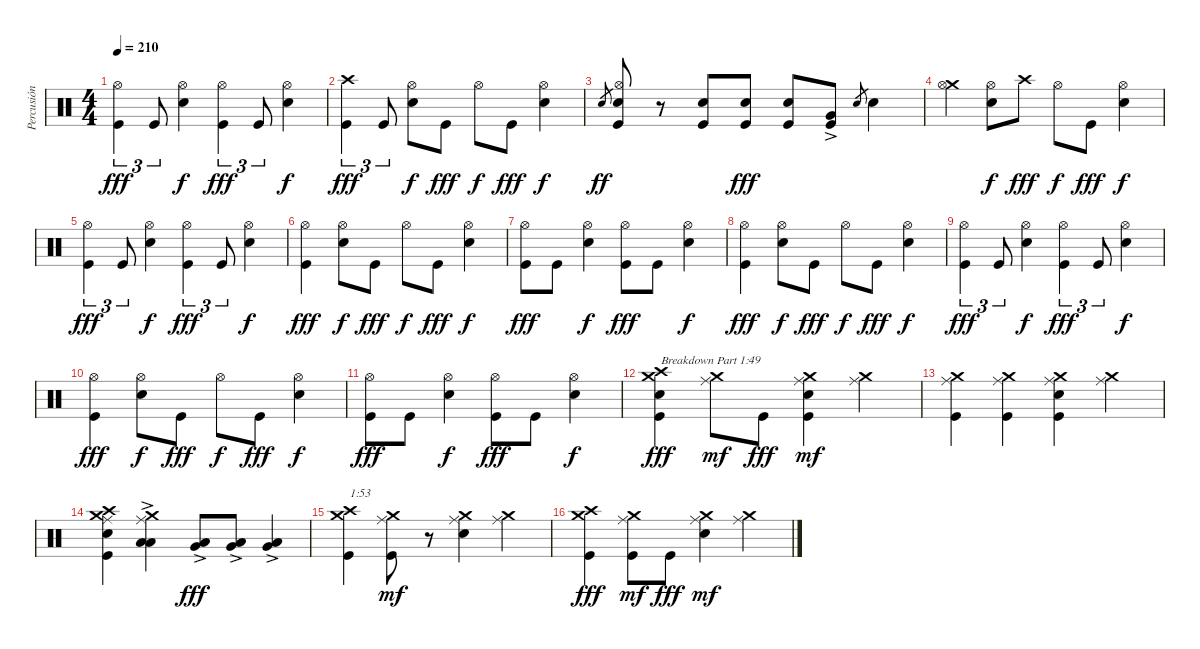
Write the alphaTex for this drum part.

\track ("Percusión" "Percusión") {instrument percussion}
\staff {score}
\articulation defaults
\ts (4 4)
\tempo 210
\clef neutral
\ks c
("Kick (hit)" "Hi-Hat (open)").4{tu (3 2) dy fff} "Kick (hit)".8{tu (3 2)} ("Electric Snare (hit)" "Hi-Hat (open)").4{dy f} ("Kick (hit)" "Hi-Hat (open)").4{tu (3 2) dy fff} "Kick (hit)".8{tu (3 2)} ("Electric Snare (hit)" "Hi-Hat (open)").4{dy f} |
("Kick (hit)" "Crash high (hit)").4{tu (3 2) dy fff} "Kick (hit)".8{tu (3 2)} ("Electric Snare (hit)" "Hi-Hat (open)").8{dy f} "Kick (hit)".8{dy fff} "Hi-Hat (open)".8{dy f} "Kick (hit)".8{dy fff} ("Electric Snare (hit)" "Hi-Hat (open)").4{dy f} |
"Electric Snare (hit)".8{gr dy ff} ("Kick (hit)" "Electric Snare (hit)" "Hi-Hat (open)").8 r.8 ("Kick (hit)" "Electric Snare (hit)").8 ("Kick (hit)" "Electric Snare (hit)").8{dy fff} ("Kick (hit)" "Electric Snare (hit)").8 ("Kick (hit)" "Very Low Tom (hit)"{ac}).8 "Electric Snare (hit)".8{gr} "Electric Snare (hit)".4 |
("Crash medium (hit)" "Hi-Hat (open)").4 ("Electric Snare (hit)" "Hi-Hat (open)").8{dy f} "Crash high (hit)".8{dy fff} "Hi-Hat (open)".8{dy f} "Kick (hit)".8{dy fff} ("Electric Snare (hit)" "Hi-Hat (open)").4{dy f} |
("Kick (hit)" "Hi-Hat (open)").4{tu (3 2) dy fff} "Kick (hit)".8{tu (3 2)} ("Electric Snare (hit)" "Hi-Hat (open)").4{dy f} ("Kick (hit)" "Hi-Hat (open)").4{tu (3 2) dy fff} "Kick (hit)".8{tu (3 2)} ("Electric Snare (hit)" "Hi-Hat (open)").4{dy f} |
("Kick (hit)" "Hi-Hat (open)").4{dy fff} ("Electric Snare (hit)" "Hi-Hat (open)").8{dy f} "Kick (hit)".8{dy fff} "Hi-Hat (open)".8{dy f} "Kick (hit)".8{dy fff} ("Electric Snare (hit)" "Hi-Hat (open)").4{dy f} |
("Kick (hit)" "Hi-Hat (open)").8{dy fff} "Kick (hit)".8 ("Electric Snare (hit)" "Hi-Hat (open)").4{dy f} ("Kick (hit)" "Hi-Hat (open)").8{dy fff} "Kick (hit)".8 ("Electric Snare (hit)" "Hi-Hat (open)").4{dy f} |
("Kick (hit)" "Hi-Hat (open)").4{dy fff} ("Electric Snare (hit)" "Hi-Hat (open)").8{dy f} "Kick (hit)".8{dy fff} "Hi-Hat (open)".8{dy f} "Kick (hit)".8{dy fff} ("Electric Snare (hit)" "Hi-Hat (open)").4{dy f} |
("Kick (hit)" "Hi-Hat (open)").4{tu (3 2) dy fff} "Kick (hit)".8{tu (3 2)} ("Electric Snare (hit)" "Hi-Hat (open)").4{dy f} ("Kick (hit)" "Hi-Hat (open)").4{tu (3 2) dy fff} "Kick (hit)".8{tu (3 2)} ("Electric Snare (hit)" "Hi-Hat (open)").4{dy f} |
("Kick (hit)" "Hi-Hat (open)").4{dy fff} ("Electric Snare (hit)" "Hi-Hat (open)").8{dy f} "Kick (hit)".8{dy fff} "Hi-Hat (open)".8{dy f} "Kick (hit)".8{dy fff} ("Electric Snare (hit)" "Hi-Hat (open)").4{dy f} |
("Kick (hit)" "Hi-Hat (open)").8{dy fff} "Kick (hit)".8 ("Electric Snare (hit)" "Hi-Hat (open)").4{dy f} ("Kick (hit)" "Hi-Hat (open)").8{dy fff} "Kick (hit)".8 ("Electric Snare (hit)" "Hi-Hat (open)").4{dy f} |
("Kick (hit)" "Electric Snare (hit)" "Crash medium (hit)" "Crash high (hit)").4{txt "Breakdown Part 1:49" dy fff} ("Ride (middle)" "Crash medium (hit)").8{dy mf} "Kick (hit)".8{dy fff} ("Kick (hit)" "Electric Snare (hit)" "Ride (middle)" "Crash medium (hit)").4{dy mf} ("Ride (middle)" "Crash medium (hit)").4 |
("Kick (hit)" "Ride (middle)" "Crash medium (hit)").4 ("Kick (hit)" "Ride (middle)" "Crash medium (hit)").4 ("Kick (hit)" "Electric Snare (hit)" "Ride (middle)" "Crash medium (hit)").4 ("Ride (middle)" "Crash medium (hit)").4 |
("Kick (hit)" "Electric Snare (hit)" "Ride (middle)" "Crash medium (hit)" "Crash high (hit)").4 ("Low Tom (hit)"{ac} "Low Floor Tom (hit)"{ac} "Ride (middle)" "Crash medium (hit)").4 ("Low Tom (hit)"{ac} "Very Low Tom (hit)"{ac}).8{dy fff} ("Low Tom (hit)"{ac} "Very Low Tom (hit)"{ac}).8 ("Low Tom (hit)"{ac} "Very Low Tom (hit)"{ac}).4 |
("Kick (hit)" "Crash medium (hit)" "Crash high (hit)").4{txt "1:53"} ("Kick (hit)" "Ride (middle)" "Crash medium (hit)").8{dy mf} r.8 ("Electric Snare (hit)" "Ride (middle)" "Crash medium (hit)").4 ("Ride (middle)" "Crash medium (hit)").4 |
("Kick (hit)" "Crash medium (hit)" "Crash high (hit)").4{dy fff} ("Kick (hit)" "Ride (middle)" "Crash medium (hit)").8{dy mf} "Kick (hit)".8{dy fff} ("Electric Snare (hit)" "Ride (middle)" "Crash medium (hit)").4{dy mf} ("Ride (middle)" "Crash medium (hit)").4
